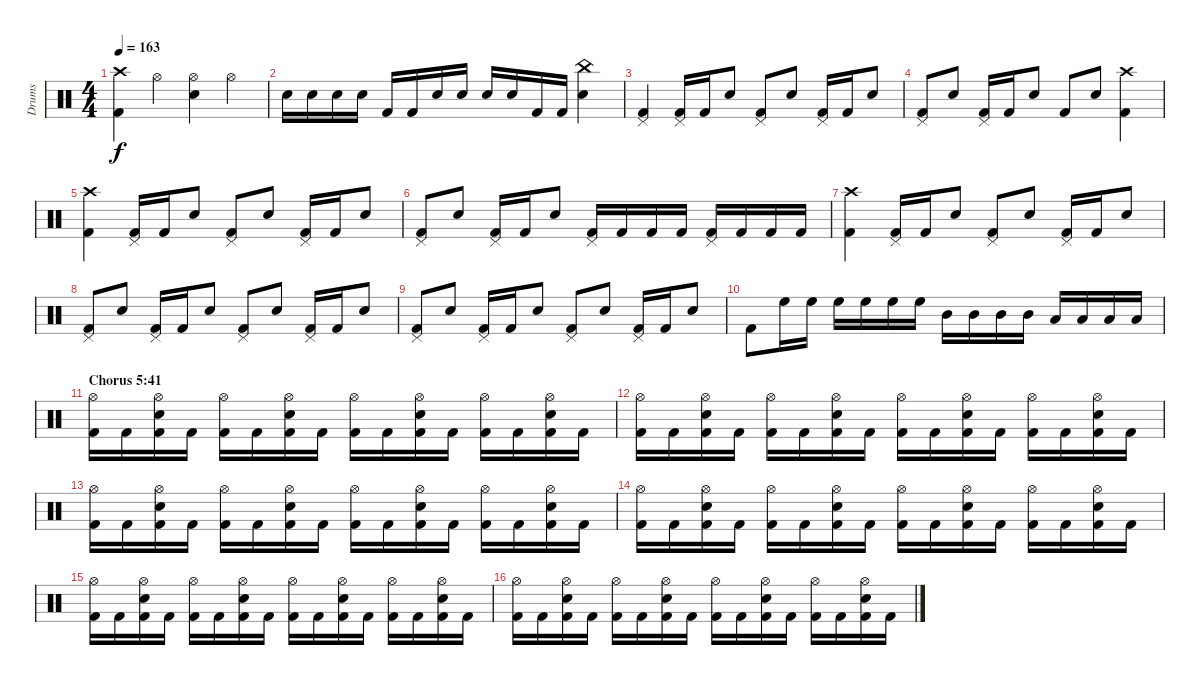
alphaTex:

\track ("Drums" "Drums") {instrument percussion}
\staff {score}
\articulation defaults
\ts (4 4)
\tempo 163
\clef neutral
\ks c
("Crash high (hit)" "Kick (hit) 2").4{dy f} "Hi-Hat (open)".4 ("Hi-Hat (open)" "Snare (hit) 2").4 "Hi-Hat (open)".4 |
"Snare (hit) 2".16 "Snare (hit) 2".16 "Snare (hit) 2".16 "Snare (hit) 2".16 "Kick (hit) 2".16 "Kick (hit) 2".16 "Snare (hit) 2".16 "Snare (hit) 2".16 "Snare (hit) 2".16 "Snare (hit) 2".16 "Kick (hit) 2".16 "Kick (hit) 2".16 ("Snare (hit) 2" "China (hit)").4 |
("Pedal Hi-Hat (hit)" "Kick (hit) 2").4 ("Pedal Hi-Hat (hit)" "Kick (hit) 2").16 "Kick (hit) 2".16 "Snare (hit) 2".8 ("Pedal Hi-Hat (hit)" "Kick (hit) 2").8 "Snare (hit) 2".8 ("Pedal Hi-Hat (hit)" "Kick (hit) 2").16 "Kick (hit) 2".16 "Snare (hit) 2".8 |
("Pedal Hi-Hat (hit)" "Kick (hit) 2").8 "Snare (hit) 2".8 ("Pedal Hi-Hat (hit)" "Kick (hit) 2").16 "Kick (hit) 2".16 "Snare (hit) 2".8 "Kick (hit) 2".8 "Snare (hit) 2".8 ("Crash high (hit)" "Kick (hit) 2").4 |
("Crash high (hit)" "Kick (hit) 2").4 ("Pedal Hi-Hat (hit)" "Kick (hit) 2").16 "Kick (hit) 2".16 "Snare (hit) 2".8 ("Pedal Hi-Hat (hit)" "Kick (hit) 2").8 "Snare (hit) 2".8 ("Pedal Hi-Hat (hit)" "Kick (hit) 2").16 "Kick (hit) 2".16 "Snare (hit) 2".8 |
("Pedal Hi-Hat (hit)" "Kick (hit) 2").8 "Snare (hit) 2".8 ("Pedal Hi-Hat (hit)" "Kick (hit) 2").16 "Kick (hit) 2".16 "Snare (hit) 2".8 ("Pedal Hi-Hat (hit)" "Kick (hit) 2").16 "Kick (hit) 2".16 "Kick (hit) 2".16 "Kick (hit) 2".16 ("Pedal Hi-Hat (hit)" "Kick (hit) 2").16 "Kick (hit) 2".16 "Kick (hit) 2".16 "Kick (hit) 2".16 |
("Crash high (hit)" "Kick (hit) 2").4 ("Pedal Hi-Hat (hit)" "Kick (hit) 2").16 "Kick (hit) 2".16 "Snare (hit) 2".8 ("Pedal Hi-Hat (hit)" "Kick (hit) 2").8 "Snare (hit) 2".8 ("Pedal Hi-Hat (hit)" "Kick (hit) 2").16 "Kick (hit) 2".16 "Snare (hit) 2".8 |
("Pedal Hi-Hat (hit)" "Kick (hit) 2").8 "Snare (hit) 2".8 ("Pedal Hi-Hat (hit)" "Kick (hit) 2").16 "Kick (hit) 2".16 "Snare (hit) 2".8 ("Pedal Hi-Hat (hit)" "Kick (hit) 2").8 "Snare (hit) 2".8 ("Pedal Hi-Hat (hit)" "Kick (hit) 2").16 "Kick (hit) 2".16 "Snare (hit) 2".8 |
("Pedal Hi-Hat (hit)" "Kick (hit) 2").8 "Snare (hit) 2".8 ("Pedal Hi-Hat (hit)" "Kick (hit) 2").16 "Kick (hit) 2".16 "Snare (hit) 2".8 ("Pedal Hi-Hat (hit)" "Kick (hit) 2").8 "Snare (hit) 2".8 ("Pedal Hi-Hat (hit)" "Kick (hit) 2").16 "Kick (hit) 2".16 "Snare (hit) 2".8 |
"Kick (hit) 2".8 "High Floor Tom (hit)".16 "High Floor Tom (hit)".16 "High Floor Tom (hit)".16 "High Floor Tom (hit)".16 "High Floor Tom (hit)".16 "High Floor Tom (hit)".16 "Mid Tom (hit)".16 "Mid Tom (hit)".16 "Mid Tom (hit)".16 "Mid Tom (hit)".16 "Low Tom (hit)".16 "Low Tom (hit)".16 "Low Tom (hit)".16 "Low Tom (hit)".16 |
\section ("" "Chorus 5:41")
("Hi-Hat (open)" "Kick (hit) 2").16 "Kick (hit) 2".16 ("Hi-Hat (open)" "Kick (hit) 2" "Snare (hit) 2").16 "Kick (hit) 2".16 ("Hi-Hat (open)" "Kick (hit) 2").16 "Kick (hit) 2".16 ("Hi-Hat (open)" "Kick (hit) 2" "Snare (hit) 2").16 "Kick (hit) 2".16 ("Hi-Hat (open)" "Kick (hit) 2").16 "Kick (hit) 2".16 ("Hi-Hat (open)" "Kick (hit) 2" "Snare (hit) 2").16 "Kick (hit) 2".16 ("Hi-Hat (open)" "Kick (hit) 2").16 "Kick (hit) 2".16 ("Hi-Hat (open)" "Kick (hit) 2" "Snare (hit) 2").16 "Kick (hit) 2".16 |
("Hi-Hat (open)" "Kick (hit) 2").16 "Kick (hit) 2".16 ("Hi-Hat (open)" "Kick (hit) 2" "Snare (hit) 2").16 "Kick (hit) 2".16 ("Hi-Hat (open)" "Kick (hit) 2").16 "Kick (hit) 2".16 ("Hi-Hat (open)" "Kick (hit) 2" "Snare (hit) 2").16 "Kick (hit) 2".16 ("Hi-Hat (open)" "Kick (hit) 2").16 "Kick (hit) 2".16 ("Hi-Hat (open)" "Kick (hit) 2" "Snare (hit) 2").16 "Kick (hit) 2".16 ("Hi-Hat (open)" "Kick (hit) 2").16 "Kick (hit) 2".16 ("Hi-Hat (open)" "Kick (hit) 2" "Snare (hit) 2").16 "Kick (hit) 2".16 |
("Hi-Hat (open)" "Kick (hit) 2").16 "Kick (hit) 2".16 ("Hi-Hat (open)" "Kick (hit) 2" "Snare (hit) 2").16 "Kick (hit) 2".16 ("Hi-Hat (open)" "Kick (hit) 2").16 "Kick (hit) 2".16 ("Hi-Hat (open)" "Kick (hit) 2" "Snare (hit) 2").16 "Kick (hit) 2".16 ("Hi-Hat (open)" "Kick (hit) 2").16 "Kick (hit) 2".16 ("Hi-Hat (open)" "Kick (hit) 2" "Snare (hit) 2").16 "Kick (hit) 2".16 ("Hi-Hat (open)" "Kick (hit) 2").16 "Kick (hit) 2".16 ("Hi-Hat (open)" "Kick (hit) 2" "Snare (hit) 2").16 "Kick (hit) 2".16 |
("Hi-Hat (open)" "Kick (hit) 2").16 "Kick (hit) 2".16 ("Hi-Hat (open)" "Kick (hit) 2" "Snare (hit) 2").16 "Kick (hit) 2".16 ("Hi-Hat (open)" "Kick (hit) 2").16 "Kick (hit) 2".16 ("Hi-Hat (open)" "Kick (hit) 2" "Snare (hit) 2").16 "Kick (hit) 2".16 ("Hi-Hat (open)" "Kick (hit) 2").16 "Kick (hit) 2".16 ("Hi-Hat (open)" "Kick (hit) 2" "Snare (hit) 2").16 "Kick (hit) 2".16 ("Hi-Hat (open)" "Kick (hit) 2").16 "Kick (hit) 2".16 ("Hi-Hat (open)" "Kick (hit) 2" "Snare (hit) 2").16 "Kick (hit) 2".16 |
("Hi-Hat (open)" "Kick (hit) 2").16 "Kick (hit) 2".16 ("Hi-Hat (open)" "Kick (hit) 2" "Snare (hit) 2").16 "Kick (hit) 2".16 ("Hi-Hat (open)" "Kick (hit) 2").16 "Kick (hit) 2".16 ("Hi-Hat (open)" "Kick (hit) 2" "Snare (hit) 2").16 "Kick (hit) 2".16 ("Hi-Hat (open)" "Kick (hit) 2").16 "Kick (hit) 2".16 ("Hi-Hat (open)" "Kick (hit) 2" "Snare (hit) 2").16 "Kick (hit) 2".16 ("Hi-Hat (open)" "Kick (hit) 2").16 "Kick (hit) 2".16 ("Hi-Hat (open)" "Kick (hit) 2" "Snare (hit) 2").16 "Kick (hit) 2".16 |
("Hi-Hat (open)" "Kick (hit) 2").16 "Kick (hit) 2".16 ("Hi-Hat (open)" "Kick (hit) 2" "Snare (hit) 2").16 "Kick (hit) 2".16 ("Hi-Hat (open)" "Kick (hit) 2").16 "Kick (hit) 2".16 ("Hi-Hat (open)" "Kick (hit) 2" "Snare (hit) 2").16 "Kick (hit) 2".16 ("Hi-Hat (open)" "Kick (hit) 2").16 "Kick (hit) 2".16 ("Hi-Hat (open)" "Kick (hit) 2" "Snare (hit) 2").16 "Kick (hit) 2".16 ("Hi-Hat (open)" "Kick (hit) 2").16 "Kick (hit) 2".16 ("Hi-Hat (open)" "Kick (hit) 2" "Snare (hit) 2").16 "Kick (hit) 2".16
